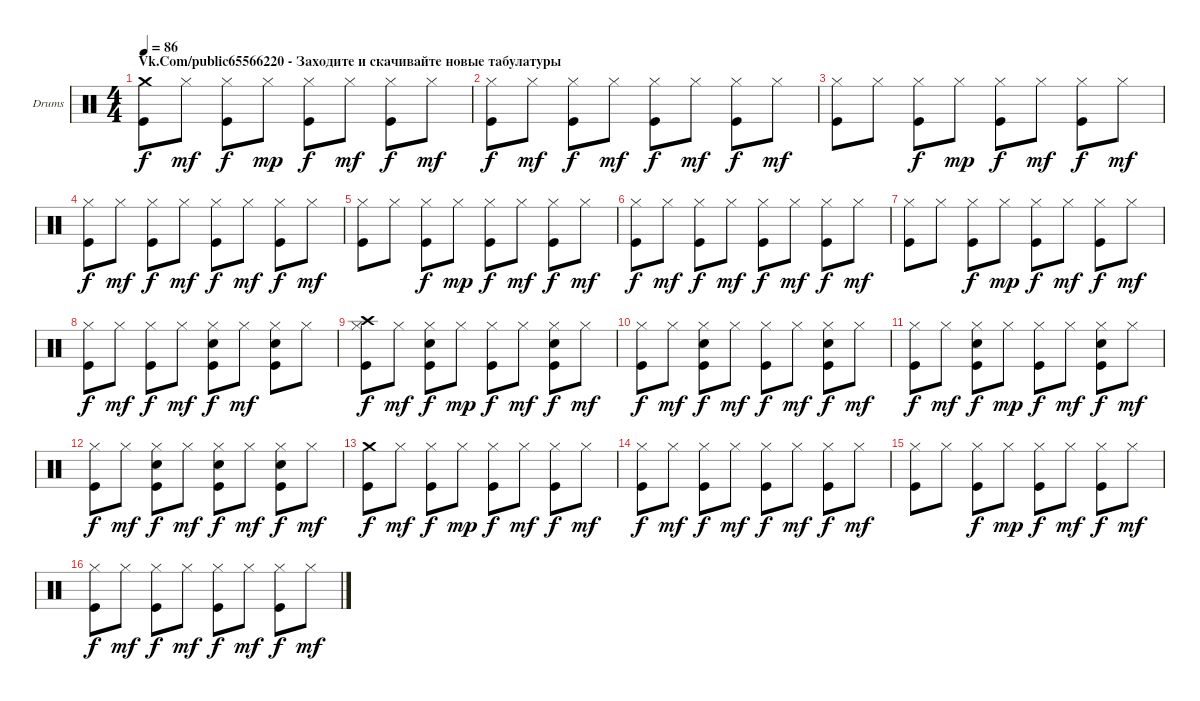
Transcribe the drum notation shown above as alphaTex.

\bracketExtendMode groupsimilarinstruments
\firstSystemTrackNameOrientation horizontal
\otherSystemsTrackNameOrientation horizontal
\track ("Ударные" "Drums") {instrument percussion}
\staff {score}
\articulation defaults
\ts (4 4)
\section ("" "Vk.Com/public65566220 - Заходите и скачивайте новые табулатуры")
\tempo 86
\clef neutral
\ks c
("Crash medium (hit)" "Kick (hit)").8{dy f} "Hi-Hat (closed)".8{dy mf} ("Hi-Hat (closed)" "Kick (hit)").8{dy f} "Hi-Hat (closed)".8{dy mp} ("Hi-Hat (closed)" "Kick (hit)").8{dy f} "Hi-Hat (closed)".8{dy mf} ("Hi-Hat (closed)" "Kick (hit)").8{dy f} "Hi-Hat (closed)".8{dy mf} |
("Hi-Hat (closed)" "Kick (hit)").8{dy f} "Hi-Hat (closed)".8{dy mf} ("Hi-Hat (closed)" "Kick (hit)").8{dy f} "Hi-Hat (closed)".8{dy mf} ("Hi-Hat (closed)" "Kick (hit)").8{dy f} "Hi-Hat (closed)".8{dy mf} ("Hi-Hat (closed)" "Kick (hit)").8{dy f} "Hi-Hat (closed)".8{dy mf} |
("Hi-Hat (closed)" "Kick (hit)").8 "Hi-Hat (closed)".8 ("Hi-Hat (closed)" "Kick (hit)").8{dy f} "Hi-Hat (closed)".8{dy mp} ("Hi-Hat (closed)" "Kick (hit)").8{dy f} "Hi-Hat (closed)".8{dy mf} ("Hi-Hat (closed)" "Kick (hit)").8{dy f} "Hi-Hat (closed)".8{dy mf} |
("Hi-Hat (closed)" "Kick (hit)").8{dy f} "Hi-Hat (closed)".8{dy mf} ("Hi-Hat (closed)" "Kick (hit)").8{dy f} "Hi-Hat (closed)".8{dy mf} ("Hi-Hat (closed)" "Kick (hit)").8{dy f} "Hi-Hat (closed)".8{dy mf} ("Hi-Hat (closed)" "Kick (hit)").8{dy f} "Hi-Hat (closed)".8{dy mf} |
("Hi-Hat (closed)" "Kick (hit)").8 "Hi-Hat (closed)".8 ("Hi-Hat (closed)" "Kick (hit)").8{dy f} "Hi-Hat (closed)".8{dy mp} ("Hi-Hat (closed)" "Kick (hit)").8{dy f} "Hi-Hat (closed)".8{dy mf} ("Hi-Hat (closed)" "Kick (hit)").8{dy f} "Hi-Hat (closed)".8{dy mf} |
("Hi-Hat (closed)" "Kick (hit)").8{dy f} "Hi-Hat (closed)".8{dy mf} ("Hi-Hat (closed)" "Kick (hit)").8{dy f} "Hi-Hat (closed)".8{dy mf} ("Hi-Hat (closed)" "Kick (hit)").8{dy f} "Hi-Hat (closed)".8{dy mf} ("Hi-Hat (closed)" "Kick (hit)").8{dy f} "Hi-Hat (closed)".8{dy mf} |
("Hi-Hat (closed)" "Kick (hit)").8 "Hi-Hat (closed)".8 ("Hi-Hat (closed)" "Kick (hit)").8{dy f} "Hi-Hat (closed)".8{dy mp} ("Hi-Hat (closed)" "Kick (hit)").8{dy f} "Hi-Hat (closed)".8{dy mf} ("Hi-Hat (closed)" "Kick (hit)").8{dy f} "Hi-Hat (closed)".8{dy mf} |
("Hi-Hat (closed)" "Kick (hit)").8{dy f} "Hi-Hat (closed)".8{dy mf} ("Hi-Hat (closed)" "Kick (hit)").8{dy f} "Hi-Hat (closed)".8{dy mf} ("Hi-Hat (closed)" "Kick (hit)" "Snare (hit) 2").8{dy f} "Hi-Hat (closed)".8{dy mf} ("Snare (hit) 2" "Hi-Hat (closed)" "Kick (hit)").8 "Hi-Hat (closed)".8 |
("Hi-Hat (closed)" "Crash high (hit)" "Kick (hit)").8{dy f} "Hi-Hat (closed)".8{dy mf} ("Snare (hit) 2" "Hi-Hat (closed)" "Kick (hit)").8{dy f} "Hi-Hat (closed)".8{dy mp} ("Hi-Hat (closed)" "Kick (hit)").8{dy f} "Hi-Hat (closed)".8{dy mf} ("Snare (hit) 2" "Hi-Hat (closed)" "Kick (hit)").8{dy f} "Hi-Hat (closed)".8{dy mf} |
("Hi-Hat (closed)" "Kick (hit)").8{dy f} "Hi-Hat (closed)".8{dy mf} ("Snare (hit) 2" "Hi-Hat (closed)" "Kick (hit)").8{dy f} "Hi-Hat (closed)".8{dy mf} ("Hi-Hat (closed)" "Kick (hit)").8{dy f} "Hi-Hat (closed)".8{dy mf} ("Snare (hit) 2" "Hi-Hat (closed)" "Kick (hit)").8{dy f} "Hi-Hat (closed)".8{dy mf} |
("Hi-Hat (closed)" "Kick (hit)").8{dy f} "Hi-Hat (closed)".8{dy mf} ("Snare (hit) 2" "Hi-Hat (closed)" "Kick (hit)").8{dy f} "Hi-Hat (closed)".8{dy mp} ("Hi-Hat (closed)" "Kick (hit)").8{dy f} "Hi-Hat (closed)".8{dy mf} ("Snare (hit) 2" "Hi-Hat (closed)" "Kick (hit)").8{dy f} "Hi-Hat (closed)".8{dy mf} |
("Hi-Hat (closed)" "Kick (hit)").8{dy f} "Hi-Hat (closed)".8{dy mf} ("Snare (hit) 2" "Hi-Hat (closed)" "Kick (hit)").8{dy f} "Hi-Hat (closed)".8{dy mf} ("Hi-Hat (closed)" "Kick (hit)" "Snare (hit) 2").8{dy f} "Hi-Hat (closed)".8{dy mf} ("Snare (hit) 2" "Hi-Hat (closed)" "Kick (hit)").8{dy f} "Hi-Hat (closed)".8{dy mf} |
("Crash medium (hit)" "Kick (hit)").8{dy f} "Hi-Hat (closed)".8{dy mf} ("Hi-Hat (closed)" "Kick (hit)").8{dy f} "Hi-Hat (closed)".8{dy mp} ("Hi-Hat (closed)" "Kick (hit)").8{dy f} "Hi-Hat (closed)".8{dy mf} ("Hi-Hat (closed)" "Kick (hit)").8{dy f} "Hi-Hat (closed)".8{dy mf} |
("Hi-Hat (closed)" "Kick (hit)").8{dy f} "Hi-Hat (closed)".8{dy mf} ("Hi-Hat (closed)" "Kick (hit)").8{dy f} "Hi-Hat (closed)".8{dy mf} ("Hi-Hat (closed)" "Kick (hit)").8{dy f} "Hi-Hat (closed)".8{dy mf} ("Hi-Hat (closed)" "Kick (hit)").8{dy f} "Hi-Hat (closed)".8{dy mf} |
("Hi-Hat (closed)" "Kick (hit)").8 "Hi-Hat (closed)".8 ("Hi-Hat (closed)" "Kick (hit)").8{dy f} "Hi-Hat (closed)".8{dy mp} ("Hi-Hat (closed)" "Kick (hit)").8{dy f} "Hi-Hat (closed)".8{dy mf} ("Hi-Hat (closed)" "Kick (hit)").8{dy f} "Hi-Hat (closed)".8{dy mf} |
("Hi-Hat (closed)" "Kick (hit)").8{dy f} "Hi-Hat (closed)".8{dy mf} ("Hi-Hat (closed)" "Kick (hit)").8{dy f} "Hi-Hat (closed)".8{dy mf} ("Hi-Hat (closed)" "Kick (hit)").8{dy f} "Hi-Hat (closed)".8{dy mf} ("Hi-Hat (closed)" "Kick (hit)").8{dy f} "Hi-Hat (closed)".8{dy mf}
